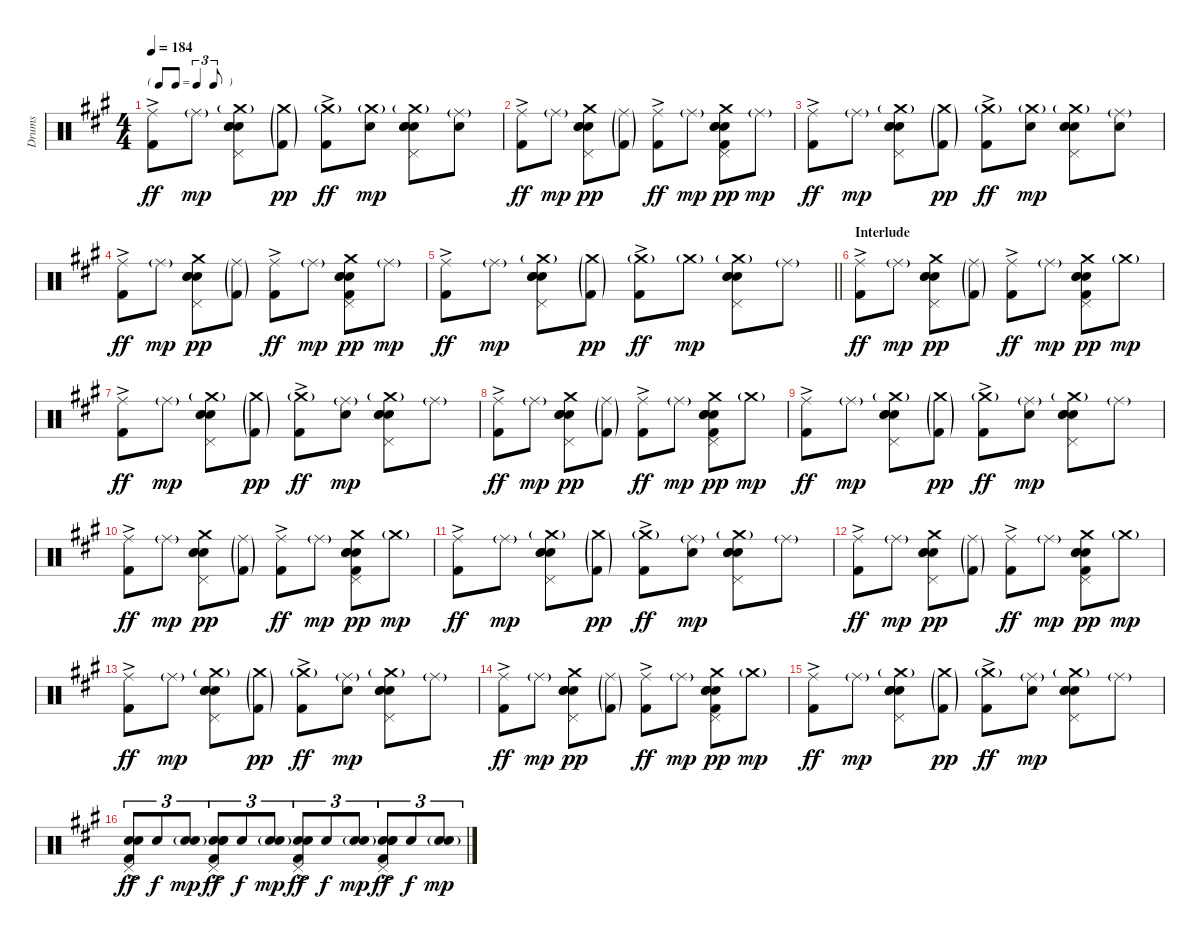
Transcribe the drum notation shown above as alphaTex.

\track ("Drums" "Drums") {instrument percussion}
\staff {score}
\articulation defaults
\ts (4 4)
\tf triplet8th
\tempo 184
\clef neutral
\ks a
("Ride (middle)" "Kick (hit) 2"{ac}).8{dy ff} "Ride (middle)"{g}.8{dy mp} ("Crash medium (hit)"{g} "Pedal Hi-Hat (hit)" "Hand Clap (hit)" "Electric Snare (hit)" "Snare (hit) 2").8 ("Crash medium (hit)"{g} "Kick (hit) 2"{g}).8{dy pp} ("Crash medium (hit)"{g} "Kick (hit) 2"{ac}).8{dy ff} ("Crash medium (hit)"{g} "Snare (hit) 2").8{dy mp} ("Crash medium (hit)"{g} "Pedal Hi-Hat (hit)" "Hand Clap (hit)" "Electric Snare (hit)" "Snare (hit) 2").8 ("Ride (middle)"{g} "Snare (hit) 2").8 |
("Ride (middle)" "Kick (hit) 2"{ac}).8{dy ff} "Ride (middle)"{g}.8{dy mp} ("Hand Clap (hit)" "Pedal Hi-Hat (hit)" "Crash medium (hit)" "Electric Snare (hit)" "Snare (hit) 2").8{dy pp} ("Ride (middle)"{g} "Kick (hit) 2"{g}).8 ("Ride (middle)" "Kick (hit) 2"{ac}).8{dy ff} "Ride (middle)"{g}.8{dy mp} ("Hand Clap (hit)" "Pedal Hi-Hat (hit)" "Crash medium (hit)" "Electric Snare (hit)" "Snare (hit) 2" "Kick (hit) 2").8{dy pp} "Ride (middle)"{g}.8{dy mp} |
("Ride (middle)" "Kick (hit) 2"{ac}).8{dy ff} "Ride (middle)"{g}.8{dy mp} ("Crash medium (hit)"{g} "Pedal Hi-Hat (hit)" "Hand Clap (hit)" "Electric Snare (hit)" "Snare (hit) 2").8 ("Crash medium (hit)"{g} "Kick (hit) 2"{g}).8{dy pp} ("Crash medium (hit)"{g} "Kick (hit) 2"{ac}).8{dy ff} ("Crash medium (hit)"{g} "Snare (hit) 2").8{dy mp} ("Crash medium (hit)"{g} "Pedal Hi-Hat (hit)" "Hand Clap (hit)" "Electric Snare (hit)" "Snare (hit) 2").8 ("Ride (middle)"{g} "Snare (hit) 2").8 |
("Ride (middle)" "Kick (hit) 2"{ac}).8{dy ff} "Ride (middle)"{g}.8{dy mp} ("Hand Clap (hit)" "Pedal Hi-Hat (hit)" "Crash medium (hit)" "Electric Snare (hit)" "Snare (hit) 2").8{dy pp} ("Ride (middle)"{g} "Kick (hit) 2"{g}).8 ("Ride (middle)" "Kick (hit) 2"{ac}).8{dy ff} "Ride (middle)"{g}.8{dy mp} ("Hand Clap (hit)" "Pedal Hi-Hat (hit)" "Crash medium (hit)" "Electric Snare (hit)" "Snare (hit) 2" "Kick (hit) 2").8{dy pp} "Ride (middle)"{g}.8{dy mp} |
\barLineRight lightlight
("Ride (middle)" "Kick (hit) 2"{ac}).8{dy ff} "Ride (middle)"{g}.8{dy mp} ("Crash medium (hit)"{g} "Pedal Hi-Hat (hit)" "Hand Clap (hit)" "Electric Snare (hit)" "Snare (hit) 2").8 ("Crash medium (hit)"{g} "Kick (hit) 2"{g}).8{dy pp} ("Crash medium (hit)"{g} "Kick (hit) 2"{ac}).8{dy ff} "Crash medium (hit)"{g}.8{dy mp} ("Crash medium (hit)"{g} "Pedal Hi-Hat (hit)" "Hand Clap (hit)" "Electric Snare (hit)" "Snare (hit) 2").8 "Ride (middle)"{g}.8 |
\section ("" "Interlude")
("Ride (middle)" "Kick (hit) 2"{ac}).8{dy ff} "Ride (middle)"{g}.8{dy mp} ("Hand Clap (hit)" "Pedal Hi-Hat (hit)" "Crash medium (hit)" "Electric Snare (hit)" "Snare (hit) 2").8{dy pp} ("Ride (middle)"{g} "Kick (hit) 2"{g}).8 ("Ride (middle)" "Kick (hit) 2"{ac}).8{dy ff} "Ride (middle)"{g}.8{dy mp} ("Hand Clap (hit)" "Pedal Hi-Hat (hit)" "Crash medium (hit)" "Electric Snare (hit)" "Snare (hit) 2" "Kick (hit) 2").8{dy pp} "Crash medium (hit)"{g}.8{dy mp} |
("Ride (middle)" "Kick (hit) 2"{ac}).8{dy ff} "Ride (middle)"{g}.8{dy mp} ("Crash medium (hit)"{g} "Pedal Hi-Hat (hit)" "Hand Clap (hit)" "Electric Snare (hit)" "Snare (hit) 2").8 ("Crash medium (hit)"{g} "Kick (hit) 2"{g}).8{dy pp} ("Crash medium (hit)"{g} "Kick (hit) 2"{ac}).8{dy ff} ("Ride (middle)"{g} "Snare (hit) 2").8{dy mp} ("Crash medium (hit)"{g} "Pedal Hi-Hat (hit)" "Hand Clap (hit)" "Electric Snare (hit)" "Snare (hit) 2").8 "Ride (middle)"{g}.8 |
("Ride (middle)" "Kick (hit) 2"{ac}).8{dy ff} "Ride (middle)"{g}.8{dy mp} ("Hand Clap (hit)" "Pedal Hi-Hat (hit)" "Crash medium (hit)" "Electric Snare (hit)" "Snare (hit) 2").8{dy pp} ("Ride (middle)"{g} "Kick (hit) 2"{g}).8 ("Ride (middle)" "Kick (hit) 2"{ac}).8{dy ff} "Ride (middle)"{g}.8{dy mp} ("Hand Clap (hit)" "Pedal Hi-Hat (hit)" "Crash medium (hit)" "Electric Snare (hit)" "Snare (hit) 2" "Kick (hit) 2").8{dy pp} "Crash medium (hit)"{g}.8{dy mp} |
("Ride (middle)" "Kick (hit) 2"{ac}).8{dy ff} "Ride (middle)"{g}.8{dy mp} ("Crash medium (hit)"{g} "Pedal Hi-Hat (hit)" "Hand Clap (hit)" "Electric Snare (hit)" "Snare (hit) 2").8 ("Crash medium (hit)"{g} "Kick (hit) 2"{g}).8{dy pp} ("Crash medium (hit)"{g} "Kick (hit) 2"{ac}).8{dy ff} ("Ride (middle)"{g} "Snare (hit) 2").8{dy mp} ("Crash medium (hit)"{g} "Pedal Hi-Hat (hit)" "Hand Clap (hit)" "Electric Snare (hit)" "Snare (hit) 2").8 "Ride (middle)"{g}.8 |
("Ride (middle)" "Kick (hit) 2"{ac}).8{dy ff} "Ride (middle)"{g}.8{dy mp} ("Hand Clap (hit)" "Pedal Hi-Hat (hit)" "Crash medium (hit)" "Electric Snare (hit)" "Snare (hit) 2").8{dy pp} ("Ride (middle)"{g} "Kick (hit) 2"{g}).8 ("Ride (middle)" "Kick (hit) 2"{ac}).8{dy ff} "Ride (middle)"{g}.8{dy mp} ("Hand Clap (hit)" "Pedal Hi-Hat (hit)" "Crash medium (hit)" "Electric Snare (hit)" "Snare (hit) 2" "Kick (hit) 2").8{dy pp} "Crash medium (hit)"{g}.8{dy mp} |
("Ride (middle)" "Kick (hit) 2"{ac}).8{dy ff} "Ride (middle)"{g}.8{dy mp} ("Crash medium (hit)"{g} "Pedal Hi-Hat (hit)" "Hand Clap (hit)" "Electric Snare (hit)" "Snare (hit) 2").8 ("Crash medium (hit)"{g} "Kick (hit) 2"{g}).8{dy pp} ("Crash medium (hit)"{g} "Kick (hit) 2"{ac}).8{dy ff} ("Ride (middle)"{g} "Snare (hit) 2").8{dy mp} ("Crash medium (hit)"{g} "Pedal Hi-Hat (hit)" "Hand Clap (hit)" "Electric Snare (hit)" "Snare (hit) 2").8 "Ride (middle)"{g}.8 |
("Ride (middle)" "Kick (hit) 2"{ac}).8{dy ff} "Ride (middle)"{g}.8{dy mp} ("Hand Clap (hit)" "Pedal Hi-Hat (hit)" "Crash medium (hit)" "Electric Snare (hit)" "Snare (hit) 2").8{dy pp} ("Ride (middle)"{g} "Kick (hit) 2"{g}).8 ("Ride (middle)" "Kick (hit) 2"{ac}).8{dy ff} "Ride (middle)"{g}.8{dy mp} ("Hand Clap (hit)" "Pedal Hi-Hat (hit)" "Crash medium (hit)" "Electric Snare (hit)" "Snare (hit) 2" "Kick (hit) 2").8{dy pp} "Crash medium (hit)"{g}.8{dy mp} |
("Ride (middle)" "Kick (hit) 2"{ac}).8{dy ff} "Ride (middle)"{g}.8{dy mp} ("Crash medium (hit)"{g} "Pedal Hi-Hat (hit)" "Hand Clap (hit)" "Electric Snare (hit)" "Snare (hit) 2").8 ("Crash medium (hit)"{g} "Kick (hit) 2"{g}).8{dy pp} ("Crash medium (hit)"{g} "Kick (hit) 2"{ac}).8{dy ff} ("Ride (middle)"{g} "Snare (hit) 2").8{dy mp} ("Crash medium (hit)"{g} "Pedal Hi-Hat (hit)" "Hand Clap (hit)" "Electric Snare (hit)" "Snare (hit) 2").8 "Ride (middle)"{g}.8 |
("Ride (middle)" "Kick (hit) 2"{ac}).8{dy ff} "Ride (middle)"{g}.8{dy mp} ("Hand Clap (hit)" "Pedal Hi-Hat (hit)" "Crash medium (hit)" "Electric Snare (hit)" "Snare (hit) 2").8{dy pp} ("Ride (middle)"{g} "Kick (hit) 2"{g}).8 ("Ride (middle)" "Kick (hit) 2"{ac}).8{dy ff} "Ride (middle)"{g}.8{dy mp} ("Hand Clap (hit)" "Pedal Hi-Hat (hit)" "Crash medium (hit)" "Electric Snare (hit)" "Snare (hit) 2" "Kick (hit) 2").8{dy pp} "Crash medium (hit)"{g}.8{dy mp} |
("Ride (middle)" "Kick (hit) 2"{ac}).8{dy ff} "Ride (middle)"{g}.8{dy mp} ("Crash medium (hit)"{g} "Pedal Hi-Hat (hit)" "Hand Clap (hit)" "Electric Snare (hit)" "Snare (hit) 2").8 ("Crash medium (hit)"{g} "Kick (hit) 2"{g}).8{dy pp} ("Crash medium (hit)"{g} "Kick (hit) 2"{ac}).8{dy ff} ("Ride (middle)"{g} "Snare (hit) 2").8{dy mp} ("Crash medium (hit)"{g} "Pedal Hi-Hat (hit)" "Hand Clap (hit)" "Electric Snare (hit)" "Snare (hit) 2").8 "Ride (middle)"{g}.8 |
("Pedal Hi-Hat (hit)" "Electric Snare (hit)"{ac} "Snare (hit) 2" "Kick (hit) 2"{ac}).8{tu (3 2) dy ff} "Snare (hit) 2".8{tu (3 2) dy f} ("Electric Snare (hit)"{g} "Snare (hit) 2").8{tu (3 2) dy mp} ("Pedal Hi-Hat (hit)" "Hand Clap (hit)" "Electric Snare (hit)"{ac} "Snare (hit) 2" "Kick (hit) 2"{ac}).8{tu (3 2) dy ff} "Snare (hit) 2".8{tu (3 2) dy f} ("Electric Snare (hit)"{g} "Snare (hit) 2").8{tu (3 2) dy mp} ("Pedal Hi-Hat (hit)" "Electric Snare (hit)"{ac} "Snare (hit) 2" "Kick (hit) 2"{ac}).8{tu (3 2) dy ff} "Snare (hit) 2".8{tu (3 2) dy f} ("Electric Snare (hit)"{g} "Snare (hit) 2").8{tu (3 2) dy mp} ("Pedal Hi-Hat (hit)" "Hand Clap (hit)" "Electric Snare (hit)"{ac} "Snare (hit) 2" "Kick (hit) 2"{ac}).8{tu (3 2) dy ff} "Snare (hit) 2".8{tu (3 2) dy f} ("Electric Snare (hit)"{g} "Snare (hit) 2").8{tu (3 2) dy mp}
